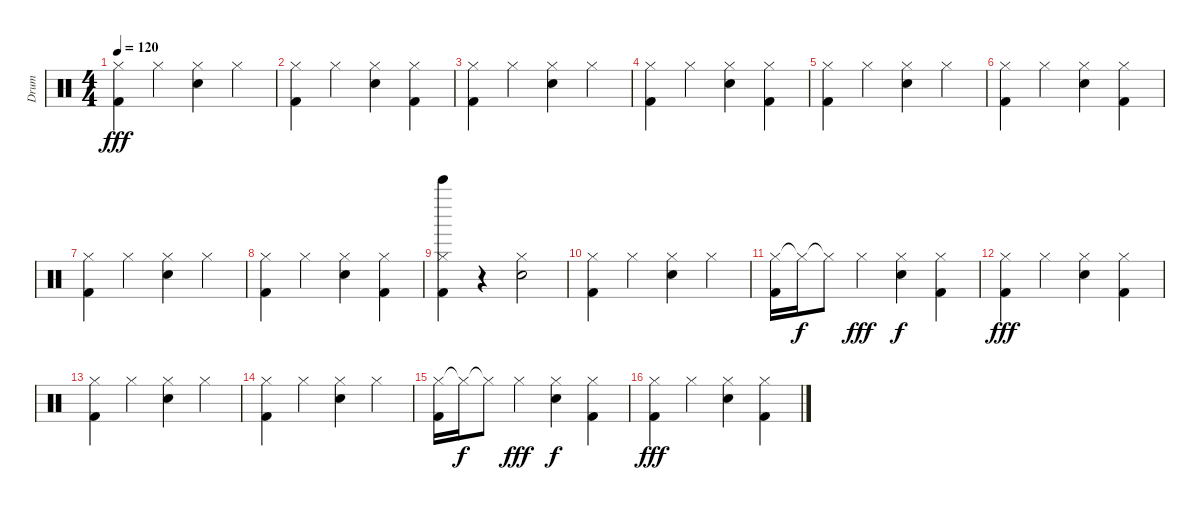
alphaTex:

\track ("Drum" "Drum") {instrument percussion}
\staff {score}
\articulation defaults
\ts (4 4)
\tempo 120
\clef neutral
\ks c
("Hi-Hat (closed)" "Kick (hit) 2").4{dy fff} "Hi-Hat (closed)".4 ("Hi-Hat (closed)" "Electric Snare (hit)").4 "Hi-Hat (closed)".4 |
("Hi-Hat (closed)" "Kick (hit) 2").4 "Hi-Hat (closed)".4 ("Hi-Hat (closed)" "Electric Snare (hit)").4 ("Hi-Hat (closed)" "Kick (hit) 2").4 |
("Hi-Hat (closed)" "Kick (hit) 2").4 "Hi-Hat (closed)".4 ("Hi-Hat (closed)" "Electric Snare (hit)").4 "Hi-Hat (closed)".4 |
("Hi-Hat (closed)" "Kick (hit) 2").4 "Hi-Hat (closed)".4 ("Hi-Hat (closed)" "Electric Snare (hit)").4 ("Hi-Hat (closed)" "Kick (hit) 2").4 |
("Hi-Hat (closed)" "Kick (hit) 2").4 "Hi-Hat (closed)".4 ("Hi-Hat (closed)" "Electric Snare (hit)").4 "Hi-Hat (closed)".4 |
("Hi-Hat (closed)" "Kick (hit) 2").4 "Hi-Hat (closed)".4 ("Hi-Hat (closed)" "Electric Snare (hit)").4 ("Hi-Hat (closed)" "Kick (hit) 2").4 |
("Hi-Hat (closed)" "Kick (hit) 2").4 "Hi-Hat (closed)".4 ("Hi-Hat (closed)" "Electric Snare (hit)").4 "Hi-Hat (closed)".4 |
("Hi-Hat (closed)" "Kick (hit) 2").4 "Hi-Hat (closed)".4 ("Hi-Hat (closed)" "Electric Snare (hit)").4 ("Hi-Hat (closed)" "Kick (hit) 2").4 |
("Hi-Hat (closed)" "Kick (hit) 2" "Bell Tree (hit)").4 r.4 ("Hi-Hat (closed)" "Electric Snare (hit)").2 |
("Hi-Hat (closed)" "Kick (hit) 2").4 "Hi-Hat (closed)".4 ("Hi-Hat (closed)" "Electric Snare (hit)").4 "Hi-Hat (closed)".4 |
("Hi-Hat (closed)" "Kick (hit) 2").16 "Hi-Hat (closed)"{t}.16{dy f} "Hi-Hat (closed)"{t}.8 "Hi-Hat (closed)".4{dy fff} ("Hi-Hat (closed)" "Electric Snare (hit)").4{dy f} ("Hi-Hat (closed)" "Kick (hit) 2").4 |
("Hi-Hat (closed)" "Kick (hit) 2").4{dy fff} "Hi-Hat (closed)".4 ("Hi-Hat (closed)" "Electric Snare (hit)").4 ("Hi-Hat (closed)" "Kick (hit) 2").4 |
("Hi-Hat (closed)" "Kick (hit) 2").4 "Hi-Hat (closed)".4 ("Hi-Hat (closed)" "Electric Snare (hit)").4 "Hi-Hat (closed)".4 |
("Hi-Hat (closed)" "Kick (hit) 2").4 "Hi-Hat (closed)".4 ("Hi-Hat (closed)" "Electric Snare (hit)").4 "Hi-Hat (closed)".4 |
("Hi-Hat (closed)" "Kick (hit) 2").16 "Hi-Hat (closed)"{t}.16{dy f} "Hi-Hat (closed)"{t}.8 "Hi-Hat (closed)".4{dy fff} ("Hi-Hat (closed)" "Electric Snare (hit)").4{dy f} ("Hi-Hat (closed)" "Kick (hit) 2").4 |
("Hi-Hat (closed)" "Kick (hit) 2").4{dy fff} "Hi-Hat (closed)".4 ("Hi-Hat (closed)" "Electric Snare (hit)").4 ("Hi-Hat (closed)" "Kick (hit) 2").4
